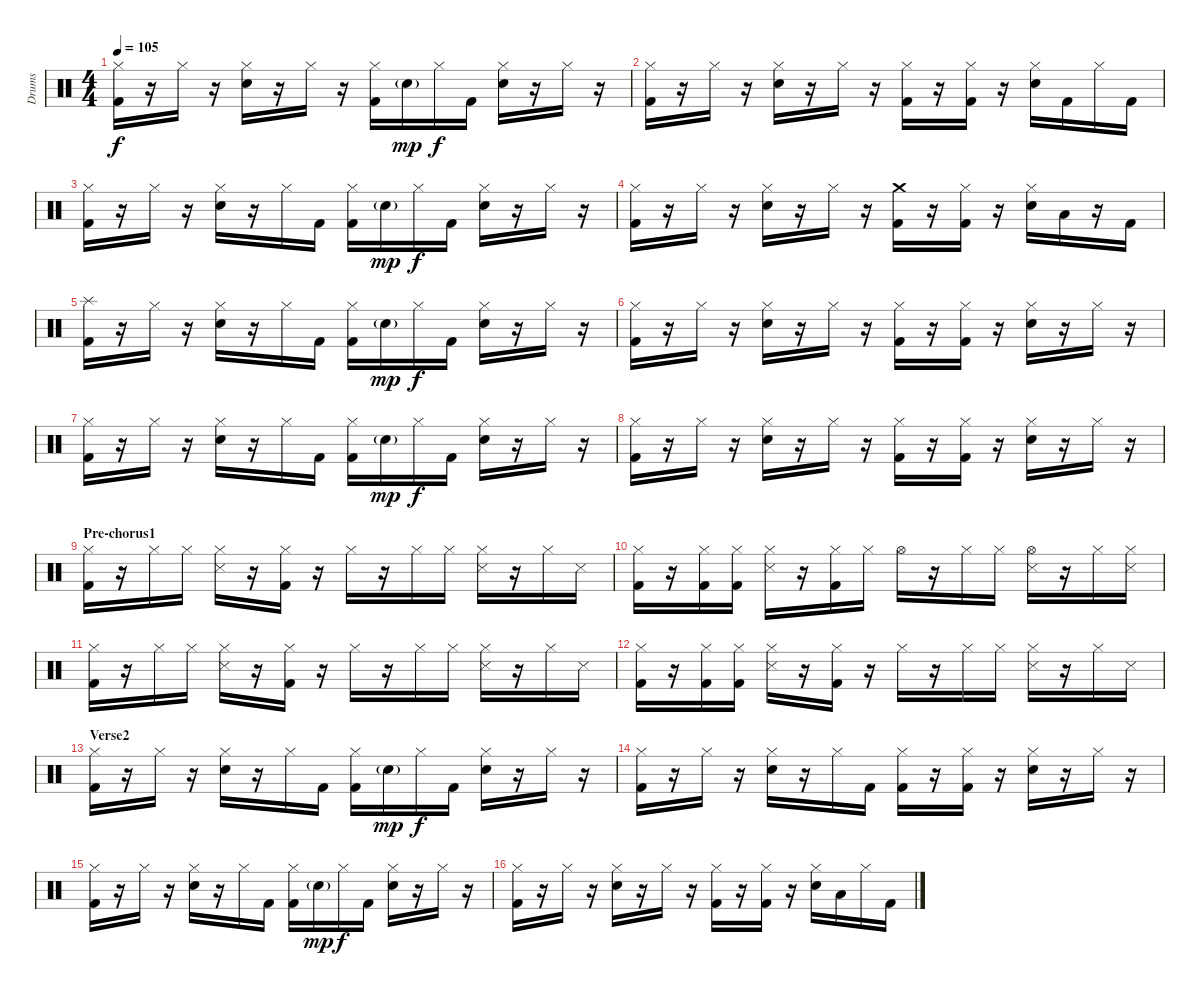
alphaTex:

\track ("Drums" "Drums") {instrument percussion}
\staff {score}
\articulation defaults
\ts (4 4)
\tempo 105
\clef neutral
\ks c
("Hi-Hat (closed)" "Kick (hit) 2").16{dy f} r.16 "Hi-Hat (closed)".16 r.16 ("Hi-Hat (closed)" "Electric Snare (hit)").16 r.16 "Hi-Hat (closed)".16 r.16 ("Hi-Hat (closed)" "Kick (hit) 2").16 "Electric Snare (hit)"{g}.16{dy mp} "Hi-Hat (closed)".16{dy f} "Kick (hit) 2".16 ("Hi-Hat (closed)" "Electric Snare (hit)").16 r.16 "Hi-Hat (closed)".16 r.16 |
("Hi-Hat (closed)" "Kick (hit) 2").16 r.16 "Hi-Hat (closed)".16 r.16 ("Hi-Hat (closed)" "Electric Snare (hit)").16 r.16 "Hi-Hat (closed)".16 r.16 ("Hi-Hat (closed)" "Kick (hit) 2").16 r.16 ("Hi-Hat (closed)" "Kick (hit) 2").16 r.16 ("Hi-Hat (closed)" "Electric Snare (hit)").16 "Kick (hit) 2".16 "Hi-Hat (closed)".16 "Kick (hit) 2".16 |
("Hi-Hat (closed)" "Kick (hit) 2").16 r.16 "Hi-Hat (closed)".16 r.16 ("Hi-Hat (closed)" "Electric Snare (hit)").16 r.16 "Hi-Hat (closed)".16 "Kick (hit) 2".16 ("Hi-Hat (closed)" "Kick (hit) 2").16 "Electric Snare (hit)"{g}.16{dy mp} "Hi-Hat (closed)".16{dy f} "Kick (hit) 2".16 ("Hi-Hat (closed)" "Electric Snare (hit)").16 r.16 "Hi-Hat (closed)".16 r.16 |
("Hi-Hat (closed)" "Kick (hit) 2").16 r.16 "Hi-Hat (closed)".16 r.16 ("Hi-Hat (closed)" "Electric Snare (hit)").16 r.16 "Hi-Hat (closed)".16 r.16 ("Crash medium (hit)" "Kick (hit) 2").16 r.16 ("Hi-Hat (closed)" "Kick (hit) 2").16 r.16 ("Hi-Hat (closed)" "Electric Snare (hit)").16 "Low Tom (hit)".16 r.16 "Kick (hit) 2".16 |
("Splash (hit)" "Kick (hit) 2").16 r.16 "Hi-Hat (closed)".16 r.16 ("Hi-Hat (closed)" "Electric Snare (hit)").16 r.16 "Hi-Hat (closed)".16 "Kick (hit) 2".16 ("Hi-Hat (closed)" "Kick (hit) 2").16 "Electric Snare (hit)"{g}.16{dy mp} "Hi-Hat (closed)".16{dy f} "Kick (hit) 2".16 ("Hi-Hat (closed)" "Electric Snare (hit)").16 r.16 "Hi-Hat (closed)".16 r.16 |
("Hi-Hat (closed)" "Kick (hit) 2").16 r.16 "Hi-Hat (closed)".16 r.16 ("Hi-Hat (closed)" "Electric Snare (hit)").16 r.16 "Hi-Hat (closed)".16 r.16 ("Hi-Hat (closed)" "Kick (hit) 2").16 r.16 ("Hi-Hat (closed)" "Kick (hit) 2").16 r.16 ("Hi-Hat (closed)" "Electric Snare (hit)").16 r.16 "Hi-Hat (closed)".16 r.16 |
("Hi-Hat (closed)" "Kick (hit) 2").16 r.16 "Hi-Hat (closed)".16 r.16 ("Hi-Hat (closed)" "Electric Snare (hit)").16 r.16 "Hi-Hat (closed)".16 "Kick (hit) 2".16 ("Hi-Hat (closed)" "Kick (hit) 2").16 "Electric Snare (hit)"{g}.16{dy mp} "Hi-Hat (closed)".16{dy f} "Kick (hit) 2".16 ("Hi-Hat (closed)" "Electric Snare (hit)").16 r.16 "Hi-Hat (closed)".16 r.16 |
("Hi-Hat (closed)" "Kick (hit) 2").16 r.16 "Hi-Hat (closed)".16 r.16 ("Hi-Hat (closed)" "Electric Snare (hit)").16 r.16 "Hi-Hat (closed)".16 r.16 ("Hi-Hat (closed)" "Kick (hit) 2").16 r.16 ("Hi-Hat (closed)" "Kick (hit) 2").16 r.16 ("Hi-Hat (closed)" "Electric Snare (hit)").16 r.16 "Hi-Hat (closed)".16 r.16 |
\section ("" "Pre-chorus1")
("Hi-Hat (closed)" "Kick (hit) 2").16 r.16 "Hi-Hat (closed)".16 "Hi-Hat (closed)".16 ("Hi-Hat (closed)" "Snare (side stick) 3").16 r.16 ("Hi-Hat (closed)" "Kick (hit) 2").16 r.16 "Hi-Hat (closed)".16 r.16 "Hi-Hat (closed)".16 "Hi-Hat (closed)".16 ("Hi-Hat (closed)" "Snare (side stick) 3").16 r.16 "Hi-Hat (closed)".16 "Snare (side stick) 3".16 |
("Hi-Hat (closed)" "Kick (hit) 2").16 r.16 ("Hi-Hat (closed)" "Kick (hit) 2").16 ("Hi-Hat (closed)" "Kick (hit) 2").16 ("Hi-Hat (closed)" "Snare (side stick) 3").16 r.16 ("Hi-Hat (closed)" "Kick (hit) 2").16 "Hi-Hat (closed)".16 "Hi-Hat (open)".16 r.16 "Hi-Hat (closed)".16 "Hi-Hat (closed)".16 ("Hi-Hat (open)" "Snare (side stick) 3").16 r.16 "Hi-Hat (closed)".16 ("Hi-Hat (closed)" "Snare (side stick) 3").16 |
("Hi-Hat (closed)" "Kick (hit) 2").16 r.16 "Hi-Hat (closed)".16 "Hi-Hat (closed)".16 ("Hi-Hat (closed)" "Snare (side stick) 3").16 r.16 ("Hi-Hat (closed)" "Kick (hit) 2").16 r.16 "Hi-Hat (closed)".16 r.16 "Hi-Hat (closed)".16 "Hi-Hat (closed)".16 ("Hi-Hat (closed)" "Snare (side stick) 3").16 r.16 "Hi-Hat (closed)".16 "Snare (side stick) 3".16 |
("Hi-Hat (closed)" "Kick (hit) 2").16 r.16 ("Hi-Hat (closed)" "Kick (hit) 2").16 ("Hi-Hat (closed)" "Kick (hit) 2").16 ("Hi-Hat (closed)" "Snare (side stick) 3").16 r.16 ("Hi-Hat (closed)" "Kick (hit) 2").16 r.16 "Hi-Hat (closed)".16 r.16 "Hi-Hat (closed)".16 "Hi-Hat (closed)".16 ("Hi-Hat (closed)" "Snare (side stick) 3").16 r.16 "Hi-Hat (closed)".16 "Snare (side stick) 3".16 |
\section ("" "Verse2")
("Hi-Hat (closed)" "Kick (hit) 2").16 r.16 "Hi-Hat (closed)".16 r.16 ("Hi-Hat (closed)" "Electric Snare (hit)").16 r.16 "Hi-Hat (closed)".16 "Kick (hit) 2".16 ("Hi-Hat (closed)" "Kick (hit) 2").16 "Electric Snare (hit)"{g}.16{dy mp} "Hi-Hat (closed)".16{dy f} "Kick (hit) 2".16 ("Hi-Hat (closed)" "Electric Snare (hit)").16 r.16 "Hi-Hat (closed)".16 r.16 |
("Hi-Hat (closed)" "Kick (hit) 2").16 r.16 "Hi-Hat (closed)".16 r.16 ("Hi-Hat (closed)" "Electric Snare (hit)").16 r.16 "Hi-Hat (closed)".16 "Kick (hit) 2".16 ("Hi-Hat (closed)" "Kick (hit) 2").16 r.16 ("Hi-Hat (closed)" "Kick (hit) 2").16 r.16 ("Hi-Hat (closed)" "Electric Snare (hit)").16 r.16 "Hi-Hat (closed)".16 r.16 |
("Hi-Hat (closed)" "Kick (hit) 2").16 r.16 "Hi-Hat (closed)".16 r.16 ("Hi-Hat (closed)" "Electric Snare (hit)").16 r.16 "Hi-Hat (closed)".16 "Kick (hit) 2".16 ("Hi-Hat (closed)" "Kick (hit) 2").16 "Electric Snare (hit)"{g}.16{dy mp} "Hi-Hat (closed)".16{dy f} "Kick (hit) 2".16 ("Hi-Hat (closed)" "Electric Snare (hit)").16 r.16 "Hi-Hat (closed)".16 r.16 |
("Hi-Hat (closed)" "Kick (hit) 2").16 r.16 "Hi-Hat (closed)".16 r.16 ("Hi-Hat (closed)" "Electric Snare (hit)").16 r.16 "Hi-Hat (closed)".16 r.16 ("Hi-Hat (closed)" "Kick (hit) 2").16 r.16 ("Hi-Hat (closed)" "Kick (hit) 2").16 r.16 ("Hi-Hat (closed)" "Electric Snare (hit)").16 "Low Tom (hit)".16 "Hi-Hat (closed)".16 "Kick (hit) 2".16
